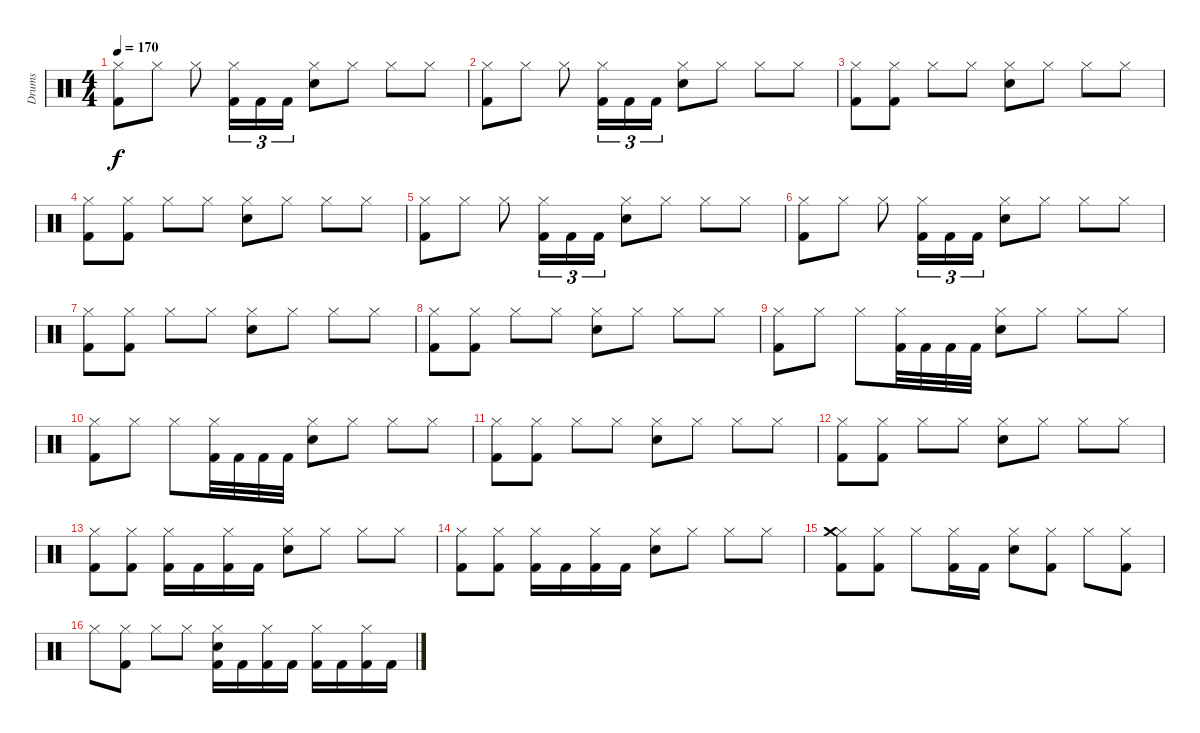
\track ("Drums" "Drums") {instrument percussion}
\staff {score}
\articulation defaults
\ts (4 4)
\tempo 170
\clef neutral
\ks c
("Kick (hit) 2" "Hi-Hat (closed)").8{dy f} "Hi-Hat (closed)".8 "Hi-Hat (closed)".8 ("Kick (hit) 2" "Hi-Hat (closed)").16{tu (3 2)} "Kick (hit) 2".16{tu (3 2)} "Kick (hit) 2".16{tu (3 2)} ("Electric Snare (hit)" "Hi-Hat (closed)").8 "Hi-Hat (closed)".8 "Hi-Hat (closed)".8 "Hi-Hat (closed)".8 |
("Kick (hit) 2" "Hi-Hat (closed)").8 "Hi-Hat (closed)".8 "Hi-Hat (closed)".8 ("Kick (hit) 2" "Hi-Hat (closed)").16{tu (3 2)} "Kick (hit) 2".16{tu (3 2)} "Kick (hit) 2".16{tu (3 2)} ("Electric Snare (hit)" "Hi-Hat (closed)").8 "Hi-Hat (closed)".8 "Hi-Hat (closed)".8 "Hi-Hat (closed)".8 |
("Kick (hit) 2" "Hi-Hat (closed)").8 ("Kick (hit) 2" "Hi-Hat (closed)").8 "Hi-Hat (closed)".8 "Hi-Hat (closed)".8 ("Electric Snare (hit)" "Hi-Hat (closed)").8 "Hi-Hat (closed)".8 "Hi-Hat (closed)".8 "Hi-Hat (closed)".8 |
("Kick (hit) 2" "Hi-Hat (closed)").8 ("Kick (hit) 2" "Hi-Hat (closed)").8 "Hi-Hat (closed)".8 "Hi-Hat (closed)".8 ("Electric Snare (hit)" "Hi-Hat (closed)").8 "Hi-Hat (closed)".8 "Hi-Hat (closed)".8 "Hi-Hat (closed)".8 |
("Kick (hit) 2" "Hi-Hat (closed)").8 "Hi-Hat (closed)".8 "Hi-Hat (closed)".8 ("Kick (hit) 2" "Hi-Hat (closed)").16{tu (3 2)} "Kick (hit) 2".16{tu (3 2)} "Kick (hit) 2".16{tu (3 2)} ("Electric Snare (hit)" "Hi-Hat (closed)").8 "Hi-Hat (closed)".8 "Hi-Hat (closed)".8 "Hi-Hat (closed)".8 |
("Kick (hit) 2" "Hi-Hat (closed)").8 "Hi-Hat (closed)".8 "Hi-Hat (closed)".8 ("Kick (hit) 2" "Hi-Hat (closed)").16{tu (3 2)} "Kick (hit) 2".16{tu (3 2)} "Kick (hit) 2".16{tu (3 2)} ("Electric Snare (hit)" "Hi-Hat (closed)").8 "Hi-Hat (closed)".8 "Hi-Hat (closed)".8 "Hi-Hat (closed)".8 |
("Kick (hit) 2" "Hi-Hat (closed)").8 ("Kick (hit) 2" "Hi-Hat (closed)").8 "Hi-Hat (closed)".8 "Hi-Hat (closed)".8 ("Electric Snare (hit)" "Hi-Hat (closed)").8 "Hi-Hat (closed)".8 "Hi-Hat (closed)".8 "Hi-Hat (closed)".8 |
("Kick (hit) 2" "Hi-Hat (closed)").8 ("Kick (hit) 2" "Hi-Hat (closed)").8 "Hi-Hat (closed)".8 "Hi-Hat (closed)".8 ("Electric Snare (hit)" "Hi-Hat (closed)").8 "Hi-Hat (closed)".8 "Hi-Hat (closed)".8 "Hi-Hat (closed)".8 |
("Kick (hit) 2" "Hi-Hat (closed)").8 "Hi-Hat (closed)".8 "Hi-Hat (closed)".8 ("Kick (hit) 2" "Hi-Hat (closed)").32 "Kick (hit) 2".32 "Kick (hit) 2".32 "Kick (hit) 2".32 ("Electric Snare (hit)" "Hi-Hat (closed)").8 "Hi-Hat (closed)".8 "Hi-Hat (closed)".8 "Hi-Hat (closed)".8 |
("Kick (hit) 2" "Hi-Hat (closed)").8 "Hi-Hat (closed)".8 "Hi-Hat (closed)".8 ("Kick (hit) 2" "Hi-Hat (closed)").32 "Kick (hit) 2".32 "Kick (hit) 2".32 "Kick (hit) 2".32 ("Electric Snare (hit)" "Hi-Hat (closed)").8 "Hi-Hat (closed)".8 "Hi-Hat (closed)".8 "Hi-Hat (closed)".8 |
("Kick (hit) 2" "Hi-Hat (closed)").8 ("Kick (hit) 2" "Hi-Hat (closed)").8 "Hi-Hat (closed)".8 "Hi-Hat (closed)".8 ("Electric Snare (hit)" "Hi-Hat (closed)").8 "Hi-Hat (closed)".8 "Hi-Hat (closed)".8 "Hi-Hat (closed)".8 |
("Kick (hit) 2" "Hi-Hat (closed)").8 ("Kick (hit) 2" "Hi-Hat (closed)").8 "Hi-Hat (closed)".8 "Hi-Hat (closed)".8 ("Electric Snare (hit)" "Hi-Hat (closed)").8 "Hi-Hat (closed)".8 "Hi-Hat (closed)".8 "Hi-Hat (closed)".8 |
("Kick (hit) 2" "Hi-Hat (closed)").8 ("Kick (hit) 2" "Hi-Hat (closed)").8 ("Kick (hit) 2" "Hi-Hat (closed)").16 "Kick (hit) 2".16 ("Kick (hit) 2" "Hi-Hat (closed)").16 "Kick (hit) 2".16 ("Electric Snare (hit)" "Hi-Hat (closed)").8 "Hi-Hat (closed)".8 "Hi-Hat (closed)".8 "Hi-Hat (closed)".8 |
("Kick (hit) 2" "Hi-Hat (closed)").8 ("Kick (hit) 2" "Hi-Hat (closed)").8 ("Kick (hit) 2" "Hi-Hat (closed)").16 "Kick (hit) 2".16 ("Kick (hit) 2" "Hi-Hat (closed)").16 "Kick (hit) 2".16 ("Electric Snare (hit)" "Hi-Hat (closed)").8 "Hi-Hat (closed)".8 "Hi-Hat (closed)".8 "Hi-Hat (closed)".8 |
("Kick (hit) 2" "Hi-Hat (closed)" "Crash medium (hit)").8 ("Kick (hit) 2" "Hi-Hat (closed)").8 "Hi-Hat (closed)".8 ("Kick (hit) 2" "Hi-Hat (closed)").16 "Kick (hit) 2".16 ("Hi-Hat (closed)" "Electric Snare (hit)").8 ("Kick (hit) 2" "Hi-Hat (closed)").8 "Hi-Hat (closed)".8 ("Kick (hit) 2" "Hi-Hat (closed)").8 |
"Hi-Hat (closed)".8 ("Kick (hit) 2" "Hi-Hat (closed)").8 "Hi-Hat (closed)".8 "Hi-Hat (closed)".8 ("Kick (hit) 2" "Hi-Hat (closed)" "Electric Snare (hit)").16 "Kick (hit) 2".16 ("Kick (hit) 2" "Hi-Hat (closed)").16 "Kick (hit) 2".16 ("Kick (hit) 2" "Hi-Hat (closed)").16 "Kick (hit) 2".16 ("Kick (hit) 2" "Hi-Hat (closed)").16 "Kick (hit) 2".16
